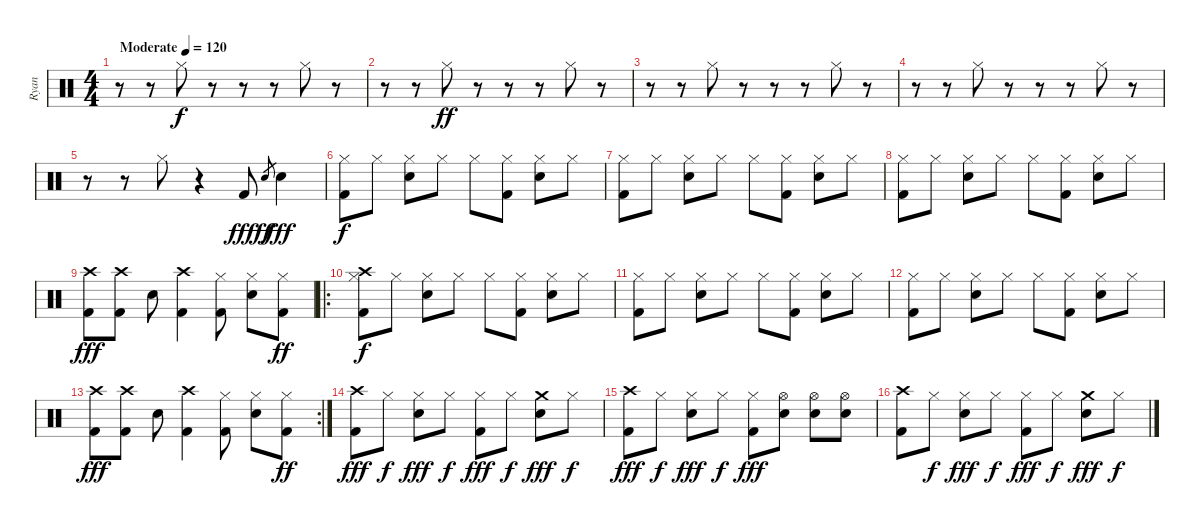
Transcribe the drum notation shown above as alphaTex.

\track ("Ryan" "Ryan") {instrument percussion}
\staff {score}
\articulation defaults
\ts (4 4)
\tempo (120 "Moderate")
\clef neutral
\ks c
r.8{dy f} r.8 "Hi-Hat (closed)".8 r.8 r.8 r.8 "Hi-Hat (closed)".8 r.8 |
r.8 r.8 "Hi-Hat (closed)".8{dy ff} r.8 r.8 r.8 "Hi-Hat (closed)".8 r.8 |
r.8 r.8 "Hi-Hat (closed)".8 r.8 r.8 r.8 "Hi-Hat (closed)".8 r.8 |
r.8 r.8 "Hi-Hat (closed)".8 r.8 r.8 r.8 "Hi-Hat (closed)".8 r.8 |
r.8 r.8 "Hi-Hat (closed)".8 r.4 "Kick (hit) 2".8{dy fff} "Snare (hit) 2".8{gr dy ff} "Snare (hit) 2".4{dy fff} |
("Hi-Hat (closed)" "Kick (hit) 2").8{dy f} "Hi-Hat (closed)".8 ("Hi-Hat (closed)" "Snare (hit) 2").8 "Hi-Hat (closed)".8 "Hi-Hat (closed)".8 ("Hi-Hat (closed)" "Kick (hit) 2").8 ("Hi-Hat (closed)" "Snare (hit) 2").8 "Hi-Hat (closed)".8 |
("Hi-Hat (closed)" "Kick (hit) 2").8 "Hi-Hat (closed)".8 ("Hi-Hat (closed)" "Snare (hit) 2").8 "Hi-Hat (closed)".8 "Hi-Hat (closed)".8 ("Hi-Hat (closed)" "Kick (hit) 2").8 ("Hi-Hat (closed)" "Snare (hit) 2").8 "Hi-Hat (closed)".8 |
("Hi-Hat (closed)" "Kick (hit) 2").8 "Hi-Hat (closed)".8 ("Hi-Hat (closed)" "Snare (hit) 2").8 "Hi-Hat (closed)".8 "Hi-Hat (closed)".8 ("Hi-Hat (closed)" "Kick (hit) 2").8 ("Hi-Hat (closed)" "Snare (hit) 2").8 "Hi-Hat (closed)".8 |
("Crash high (hit)" "Kick (hit) 2").8{dy fff} ("Crash high (hit)" "Kick (hit) 2").8 "Snare (hit) 2".8 ("Crash high (hit)" "Kick (hit) 2").4 ("Hi-Hat (closed)" "Kick (hit) 2").8 ("Hi-Hat (closed)" "Snare (hit) 2").8 ("Hi-Hat (closed)" "Kick (hit) 2").8{dy ff} |
\ro
("Hi-Hat (closed)" "Kick (hit) 2" "Crash high (hit)").8{dy f} "Hi-Hat (closed)".8 ("Hi-Hat (closed)" "Snare (hit) 2").8 "Hi-Hat (closed)".8 "Hi-Hat (closed)".8 ("Hi-Hat (closed)" "Kick (hit) 2").8 ("Hi-Hat (closed)" "Snare (hit) 2").8 "Hi-Hat (closed)".8 |
("Hi-Hat (closed)" "Kick (hit) 2").8 "Hi-Hat (closed)".8 ("Hi-Hat (closed)" "Snare (hit) 2").8 "Hi-Hat (closed)".8 "Hi-Hat (closed)".8 ("Hi-Hat (closed)" "Kick (hit) 2").8 ("Hi-Hat (closed)" "Snare (hit) 2").8 "Hi-Hat (closed)".8 |
("Hi-Hat (closed)" "Kick (hit) 2").8 "Hi-Hat (closed)".8 ("Hi-Hat (closed)" "Snare (hit) 2").8 "Hi-Hat (closed)".8 "Hi-Hat (closed)".8 ("Hi-Hat (closed)" "Kick (hit) 2").8 ("Hi-Hat (closed)" "Snare (hit) 2").8 "Hi-Hat (closed)".8 |
\rc 2
("Crash high (hit)" "Kick (hit) 2").8{dy fff} ("Crash high (hit)" "Kick (hit) 2").8 "Snare (hit) 2".8 ("Crash high (hit)" "Kick (hit) 2").4 ("Hi-Hat (closed)" "Kick (hit) 2").8 ("Hi-Hat (closed)" "Snare (hit) 2").8 ("Hi-Hat (closed)" "Kick (hit) 2").8{dy ff} |
("Crash high (hit)" "Kick (hit) 2").8{dy fff} "Hi-Hat (closed)".8{dy f} ("Hi-Hat (closed)" "Snare (hit) 2").8{dy fff} "Hi-Hat (closed)".8{dy f} ("Hi-Hat (closed)" "Kick (hit) 2").8{dy fff} "Hi-Hat (closed)".8{dy f} ("Crash medium (hit)" "Snare (hit) 2").8{dy fff} "Hi-Hat (closed)".8{dy f} |
("Crash high (hit)" "Kick (hit) 2").8{dy fff} "Hi-Hat (closed)".8{dy f} ("Hi-Hat (closed)" "Snare (hit) 2").8{dy fff} "Hi-Hat (closed)".8{dy f} ("Hi-Hat (closed)" "Kick (hit) 2").8{dy fff} ("Hi-Hat (open)" "Snare (hit) 2").8 ("Hi-Hat (open)" "Snare (hit) 2").8 ("Hi-Hat (open)" "Snare (hit) 2").8 |
("Crash high (hit)" "Kick (hit) 2").8 "Hi-Hat (closed)".8{dy f} ("Hi-Hat (closed)" "Snare (hit) 2").8{dy fff} "Hi-Hat (closed)".8{dy f} ("Hi-Hat (closed)" "Kick (hit) 2").8{dy fff} "Hi-Hat (closed)".8{dy f} ("Crash medium (hit)" "Snare (hit) 2").8{dy fff} "Hi-Hat (closed)".8{dy f}
